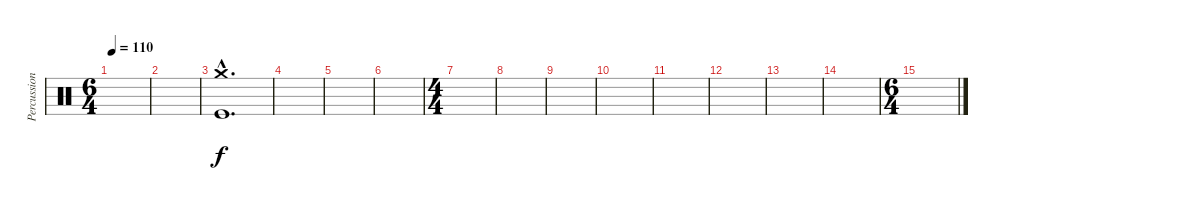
\track ("Percussion" "Percussion") {instrument percussion}
\staff {score}
\articulation defaults
\ts (6 4)
\tempo 110
\clef neutral
\ks c
|
|
("Crash medium (hit)"{hac} "Kick (hit)"{hac}).1{d} |
|
|
|
\ts (4 4)
|
|
|
|
|
|
|
|
\ts (6 4)
